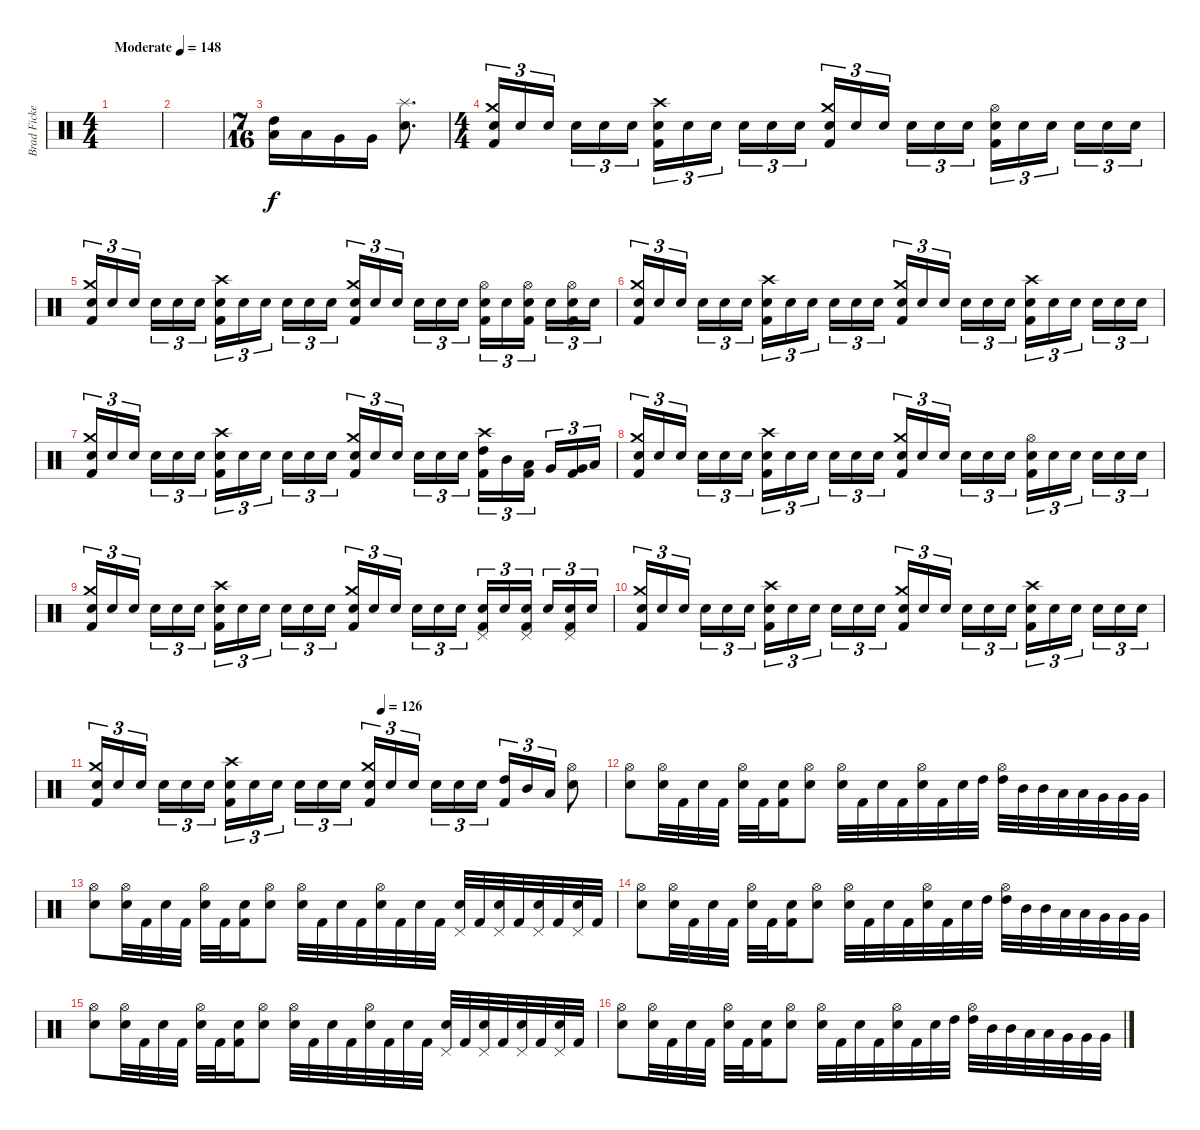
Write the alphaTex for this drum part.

\track ("Brad Fickeisen" "Brad Ficke") {instrument percussion}
\staff {score}
\articulation defaults
\ts (4 4)
\tempo (148 "Moderate")
\clef neutral
\ks c
|
|
\ts (7 16)
("High Tom (hit)" "Low Tom (hit)").16 "Low Tom (hit)".16 "Very Low Tom (hit)".16 "Very Low Tom (hit)".16 ("Splash (hit)" "Electric Snare (hit)").8{d} |
\ts (4 4)
("Crash medium (hit)" "Electric Snare (hit)" "Kick (hit) 2").16{tu (3 2)} "Electric Snare (hit)".16{tu (3 2)} "Electric Snare (hit)".16{tu (3 2) beam splitsecondary} "Electric Snare (hit)".16{tu (3 2)} "Electric Snare (hit)".16{tu (3 2)} "Electric Snare (hit)".16{tu (3 2)} ("Crash high (hit)" "Electric Snare (hit)" "Kick (hit) 2").16{tu (3 2)} "Electric Snare (hit)".16{tu (3 2)} "Electric Snare (hit)".16{tu (3 2) beam splitsecondary} "Electric Snare (hit)".16{tu (3 2)} "Electric Snare (hit)".16{tu (3 2)} "Electric Snare (hit)".16{tu (3 2)} ("Crash medium (hit)" "Electric Snare (hit)" "Kick (hit) 2").16{tu (3 2)} "Electric Snare (hit)".16{tu (3 2)} "Electric Snare (hit)".16{tu (3 2) beam splitsecondary} "Electric Snare (hit)".16{tu (3 2)} "Electric Snare (hit)".16{tu (3 2)} "Electric Snare (hit)".16{tu (3 2)} ("Hi-Hat (open)" "Electric Snare (hit)" "Kick (hit) 2").16{tu (3 2)} "Electric Snare (hit)".16{tu (3 2)} "Electric Snare (hit)".16{tu (3 2) beam splitsecondary} "Electric Snare (hit)".16{tu (3 2)} "Electric Snare (hit)".16{tu (3 2)} "Electric Snare (hit)".16{tu (3 2)} |
("Crash medium (hit)" "Electric Snare (hit)" "Kick (hit) 2").16{tu (3 2)} "Electric Snare (hit)".16{tu (3 2)} "Electric Snare (hit)".16{tu (3 2) beam splitsecondary} "Electric Snare (hit)".16{tu (3 2)} "Electric Snare (hit)".16{tu (3 2)} "Electric Snare (hit)".16{tu (3 2)} ("Crash high (hit)" "Electric Snare (hit)" "Kick (hit) 2").16{tu (3 2)} "Electric Snare (hit)".16{tu (3 2)} "Electric Snare (hit)".16{tu (3 2) beam splitsecondary} "Electric Snare (hit)".16{tu (3 2)} "Electric Snare (hit)".16{tu (3 2)} "Electric Snare (hit)".16{tu (3 2)} ("Crash medium (hit)" "Electric Snare (hit)" "Kick (hit) 2").16{tu (3 2)} "Electric Snare (hit)".16{tu (3 2)} "Electric Snare (hit)".16{tu (3 2) beam splitsecondary} "Electric Snare (hit)".16{tu (3 2)} "Electric Snare (hit)".16{tu (3 2)} "Electric Snare (hit)".16{tu (3 2)} ("Hi-Hat (open)" "Electric Snare (hit)" "Kick (hit) 2").16{tu (3 2)} "Electric Snare (hit)".16{tu (3 2)} ("Hi-Hat (open)" "Electric Snare (hit)" "Kick (hit) 2").16{tu (3 2) beam splitsecondary} "Electric Snare (hit)".16{tu (3 2)} ("Hi-Hat (open)" "Electric Snare (hit)" "Kick (hit) 2").16{tu (3 2)} "Electric Snare (hit)".16{tu (3 2)} |
("Crash medium (hit)" "Electric Snare (hit)" "Kick (hit) 2").16{tu (3 2)} "Electric Snare (hit)".16{tu (3 2)} "Electric Snare (hit)".16{tu (3 2) beam splitsecondary} "Electric Snare (hit)".16{tu (3 2)} "Electric Snare (hit)".16{tu (3 2)} "Electric Snare (hit)".16{tu (3 2)} ("Crash high (hit)" "Electric Snare (hit)" "Kick (hit) 2").16{tu (3 2)} "Electric Snare (hit)".16{tu (3 2)} "Electric Snare (hit)".16{tu (3 2) beam splitsecondary} "Electric Snare (hit)".16{tu (3 2)} "Electric Snare (hit)".16{tu (3 2)} "Electric Snare (hit)".16{tu (3 2)} ("Crash medium (hit)" "Electric Snare (hit)" "Kick (hit) 2").16{tu (3 2)} "Electric Snare (hit)".16{tu (3 2)} "Electric Snare (hit)".16{tu (3 2) beam splitsecondary} "Electric Snare (hit)".16{tu (3 2)} "Electric Snare (hit)".16{tu (3 2)} "Electric Snare (hit)".16{tu (3 2)} ("Crash high (hit)" "Electric Snare (hit)" "Kick (hit) 2").16{tu (3 2)} "Electric Snare (hit)".16{tu (3 2)} "Electric Snare (hit)".16{tu (3 2) beam splitsecondary} "Electric Snare (hit)".16{tu (3 2)} "Electric Snare (hit)".16{tu (3 2)} "Electric Snare (hit)".16{tu (3 2)} |
("Crash medium (hit)" "Electric Snare (hit)" "Kick (hit) 2").16{tu (3 2)} "Electric Snare (hit)".16{tu (3 2)} "Electric Snare (hit)".16{tu (3 2) beam splitsecondary} "Electric Snare (hit)".16{tu (3 2)} "Electric Snare (hit)".16{tu (3 2)} "Electric Snare (hit)".16{tu (3 2)} ("Crash high (hit)" "Electric Snare (hit)" "Kick (hit) 2").16{tu (3 2)} "Electric Snare (hit)".16{tu (3 2)} "Electric Snare (hit)".16{tu (3 2) beam splitsecondary} "Electric Snare (hit)".16{tu (3 2)} "Electric Snare (hit)".16{tu (3 2)} "Electric Snare (hit)".16{tu (3 2)} ("Crash medium (hit)" "Electric Snare (hit)" "Kick (hit) 2").16{tu (3 2)} "Electric Snare (hit)".16{tu (3 2)} "Electric Snare (hit)".16{tu (3 2) beam splitsecondary} "Electric Snare (hit)".16{tu (3 2)} "Electric Snare (hit)".16{tu (3 2)} "Electric Snare (hit)".16{tu (3 2)} ("Crash high (hit)" "High Tom (hit)" "Kick (hit) 2").16{tu (3 2)} "Mid Tom (hit)".16{tu (3 2)} ("Low Tom (hit)" "Kick (hit) 2").16{tu (3 2) beam splitsecondary} "Very Low Tom (hit)".16{tu (3 2)} ("Very Low Tom (hit)" "Kick (hit) 2").16{tu (3 2)} "Low Floor Tom (hit)".16{tu (3 2)} |
("Crash medium (hit)" "Electric Snare (hit)" "Kick (hit) 2").16{tu (3 2)} "Electric Snare (hit)".16{tu (3 2)} "Electric Snare (hit)".16{tu (3 2) beam splitsecondary} "Electric Snare (hit)".16{tu (3 2)} "Electric Snare (hit)".16{tu (3 2)} "Electric Snare (hit)".16{tu (3 2)} ("Crash high (hit)" "Electric Snare (hit)" "Kick (hit) 2").16{tu (3 2)} "Electric Snare (hit)".16{tu (3 2)} "Electric Snare (hit)".16{tu (3 2) beam splitsecondary} "Electric Snare (hit)".16{tu (3 2)} "Electric Snare (hit)".16{tu (3 2)} "Electric Snare (hit)".16{tu (3 2)} ("Crash medium (hit)" "Electric Snare (hit)" "Kick (hit) 2").16{tu (3 2)} "Electric Snare (hit)".16{tu (3 2)} "Electric Snare (hit)".16{tu (3 2) beam splitsecondary} "Electric Snare (hit)".16{tu (3 2)} "Electric Snare (hit)".16{tu (3 2)} "Electric Snare (hit)".16{tu (3 2)} ("Hi-Hat (open)" "Electric Snare (hit)" "Kick (hit) 2").16{tu (3 2)} "Electric Snare (hit)".16{tu (3 2)} "Electric Snare (hit)".16{tu (3 2) beam splitsecondary} "Electric Snare (hit)".16{tu (3 2)} "Electric Snare (hit)".16{tu (3 2)} "Electric Snare (hit)".16{tu (3 2)} |
("Crash medium (hit)" "Electric Snare (hit)" "Kick (hit) 2").16{tu (3 2)} "Electric Snare (hit)".16{tu (3 2)} "Electric Snare (hit)".16{tu (3 2) beam splitsecondary} "Electric Snare (hit)".16{tu (3 2)} "Electric Snare (hit)".16{tu (3 2)} "Electric Snare (hit)".16{tu (3 2)} ("Crash high (hit)" "Electric Snare (hit)" "Kick (hit) 2").16{tu (3 2)} "Electric Snare (hit)".16{tu (3 2)} "Electric Snare (hit)".16{tu (3 2) beam splitsecondary} "Electric Snare (hit)".16{tu (3 2)} "Electric Snare (hit)".16{tu (3 2)} "Electric Snare (hit)".16{tu (3 2)} ("Crash medium (hit)" "Electric Snare (hit)" "Kick (hit) 2").16{tu (3 2)} "Electric Snare (hit)".16{tu (3 2)} "Electric Snare (hit)".16{tu (3 2) beam splitsecondary} "Electric Snare (hit)".16{tu (3 2)} "Electric Snare (hit)".16{tu (3 2)} "Electric Snare (hit)".16{tu (3 2)} ("Pedal Hi-Hat (hit)" "Electric Snare (hit)" "Kick (hit) 2").16{tu (3 2)} "Electric Snare (hit)".16{tu (3 2)} ("Pedal Hi-Hat (hit)" "Electric Snare (hit)" "Kick (hit) 2").16{tu (3 2) beam splitsecondary} "Electric Snare (hit)".16{tu (3 2)} ("Pedal Hi-Hat (hit)" "Electric Snare (hit)" "Kick (hit) 2").16{tu (3 2)} "Electric Snare (hit)".16{tu (3 2)} |
("Crash medium (hit)" "Electric Snare (hit)" "Kick (hit) 2").16{tu (3 2)} "Electric Snare (hit)".16{tu (3 2)} "Electric Snare (hit)".16{tu (3 2) beam splitsecondary} "Electric Snare (hit)".16{tu (3 2)} "Electric Snare (hit)".16{tu (3 2)} "Electric Snare (hit)".16{tu (3 2)} ("Crash high (hit)" "Electric Snare (hit)" "Kick (hit) 2").16{tu (3 2)} "Electric Snare (hit)".16{tu (3 2)} "Electric Snare (hit)".16{tu (3 2) beam splitsecondary} "Electric Snare (hit)".16{tu (3 2)} "Electric Snare (hit)".16{tu (3 2)} "Electric Snare (hit)".16{tu (3 2)} ("Crash medium (hit)" "Electric Snare (hit)" "Kick (hit) 2").16{tu (3 2)} "Electric Snare (hit)".16{tu (3 2)} "Electric Snare (hit)".16{tu (3 2) beam splitsecondary} "Electric Snare (hit)".16{tu (3 2)} "Electric Snare (hit)".16{tu (3 2)} "Electric Snare (hit)".16{tu (3 2)} ("Crash high (hit)" "Electric Snare (hit)" "Kick (hit) 2").16{tu (3 2)} "Electric Snare (hit)".16{tu (3 2)} "Electric Snare (hit)".16{tu (3 2) beam splitsecondary} "Electric Snare (hit)".16{tu (3 2)} "Electric Snare (hit)".16{tu (3 2)} "Electric Snare (hit)".16{tu (3 2)} |
\tempo (126 0.5625)
("Crash medium (hit)" "Electric Snare (hit)" "Kick (hit) 2").16{tu (3 2)} "Electric Snare (hit)".16{tu (3 2)} "Electric Snare (hit)".16{tu (3 2) beam splitsecondary} "Electric Snare (hit)".16{tu (3 2)} "Electric Snare (hit)".16{tu (3 2)} "Electric Snare (hit)".16{tu (3 2)} ("Crash high (hit)" "Electric Snare (hit)" "Kick (hit) 2").16{tu (3 2)} "Electric Snare (hit)".16{tu (3 2)} "Electric Snare (hit)".16{tu (3 2) beam splitsecondary} "Electric Snare (hit)".16{tu (3 2)} "Electric Snare (hit)".16{tu (3 2)} "Electric Snare (hit)".16{tu (3 2)} ("Crash medium (hit)" "Electric Snare (hit)" "Kick (hit) 2").16{tu (3 2)} "Electric Snare (hit)".16{tu (3 2)} "Electric Snare (hit)".16{tu (3 2) beam splitsecondary} "Electric Snare (hit)".16{tu (3 2)} "Electric Snare (hit)".16{tu (3 2)} "Electric Snare (hit)".16{tu (3 2)} ("High Tom (hit)" "Kick (hit) 2").16{tu (3 2)} "Mid Tom (hit)".16{tu (3 2)} "Low Tom (hit)".16{tu (3 2)} ("Hi-Hat (open)" "Electric Snare (hit)").8 |
("Hi-Hat (open)" "Electric Snare (hit)").8 ("Hi-Hat (open)" "Electric Snare (hit)").32 "Kick (hit) 2".32 "Electric Snare (hit)".32 "Kick (hit) 2".32 ("Hi-Hat (open)" "Electric Snare (hit)").32 "Kick (hit) 2".32 ("Electric Snare (hit)" "Kick (hit) 2").16 ("Hi-Hat (open)" "Electric Snare (hit)").8 ("Hi-Hat (open)" "Electric Snare (hit)").32 "Kick (hit) 2".32 "Electric Snare (hit)".32 "Kick (hit) 2".32 ("Hi-Hat (open)" "Electric Snare (hit)").32 "Kick (hit) 2".32 "Electric Snare (hit)".32 "High Tom (hit)".32 ("Hi-Hat (open)" "High Tom (hit)").32 "Mid Tom (hit)".32 "Mid Tom (hit)".32 "Low Tom (hit)".32 "Low Tom (hit)".32 "Very Low Tom (hit)".32 "Very Low Tom (hit)".32 "Very Low Tom (hit)".32 |
("Hi-Hat (open)" "Electric Snare (hit)").8 ("Hi-Hat (open)" "Electric Snare (hit)").32 "Kick (hit) 2".32 "Electric Snare (hit)".32 "Kick (hit) 2".32 ("Hi-Hat (open)" "Electric Snare (hit)").32 "Kick (hit) 2".32 ("Electric Snare (hit)" "Kick (hit) 2").16 ("Hi-Hat (open)" "Electric Snare (hit)").8 ("Hi-Hat (open)" "Electric Snare (hit)").32 "Kick (hit) 2".32 "Electric Snare (hit)".32 "Kick (hit) 2".32 ("Hi-Hat (open)" "Electric Snare (hit)").32 "Kick (hit) 2".32 "Electric Snare (hit)".32 "Kick (hit) 2".32 ("Pedal Hi-Hat (hit)" "Electric Snare (hit)").32 "Kick (hit) 2".32 ("Pedal Hi-Hat (hit)" "Electric Snare (hit)").32 "Kick (hit) 2".32 ("Pedal Hi-Hat (hit)" "Electric Snare (hit)").32 "Kick (hit) 2".32 ("Pedal Hi-Hat (hit)" "Electric Snare (hit)").32 "Kick (hit) 2".32 |
("Hi-Hat (open)" "Electric Snare (hit)").8 ("Hi-Hat (open)" "Electric Snare (hit)").32 "Kick (hit) 2".32 "Electric Snare (hit)".32 "Kick (hit) 2".32 ("Hi-Hat (open)" "Electric Snare (hit)").32 "Kick (hit) 2".32 ("Electric Snare (hit)" "Kick (hit) 2").16 ("Hi-Hat (open)" "Electric Snare (hit)").8 ("Hi-Hat (open)" "Electric Snare (hit)").32 "Kick (hit) 2".32 "Electric Snare (hit)".32 "Kick (hit) 2".32 ("Hi-Hat (open)" "Electric Snare (hit)").32 "Kick (hit) 2".32 "Electric Snare (hit)".32 "High Tom (hit)".32 ("Hi-Hat (open)" "High Tom (hit)").32 "Mid Tom (hit)".32 "Mid Tom (hit)".32 "Low Tom (hit)".32 "Low Tom (hit)".32 "Very Low Tom (hit)".32 "Very Low Tom (hit)".32 "Very Low Tom (hit)".32 |
("Hi-Hat (open)" "Electric Snare (hit)").8 ("Hi-Hat (open)" "Electric Snare (hit)").32 "Kick (hit) 2".32 "Electric Snare (hit)".32 "Kick (hit) 2".32 ("Hi-Hat (open)" "Electric Snare (hit)").32 "Kick (hit) 2".32 ("Electric Snare (hit)" "Kick (hit) 2").16 ("Hi-Hat (open)" "Electric Snare (hit)").8 ("Hi-Hat (open)" "Electric Snare (hit)").32 "Kick (hit) 2".32 "Electric Snare (hit)".32 "Kick (hit) 2".32 ("Hi-Hat (open)" "Electric Snare (hit)").32 "Kick (hit) 2".32 "Electric Snare (hit)".32 "Kick (hit) 2".32 ("Pedal Hi-Hat (hit)" "Electric Snare (hit)").32 "Kick (hit) 2".32 ("Pedal Hi-Hat (hit)" "Electric Snare (hit)").32 "Kick (hit) 2".32 ("Pedal Hi-Hat (hit)" "Electric Snare (hit)").32 "Kick (hit) 2".32 ("Pedal Hi-Hat (hit)" "Electric Snare (hit)").32 "Kick (hit) 2".32 |
("Hi-Hat (open)" "Electric Snare (hit)").8 ("Hi-Hat (open)" "Electric Snare (hit)").32 "Kick (hit) 2".32 "Electric Snare (hit)".32 "Kick (hit) 2".32 ("Hi-Hat (open)" "Electric Snare (hit)").32 "Kick (hit) 2".32 ("Electric Snare (hit)" "Kick (hit) 2").16 ("Hi-Hat (open)" "Electric Snare (hit)").8 ("Hi-Hat (open)" "Electric Snare (hit)").32 "Kick (hit) 2".32 "Electric Snare (hit)".32 "Kick (hit) 2".32 ("Hi-Hat (open)" "Electric Snare (hit)").32 "Kick (hit) 2".32 "Electric Snare (hit)".32 "High Tom (hit)".32 ("Hi-Hat (open)" "High Tom (hit)").32 "Mid Tom (hit)".32 "Mid Tom (hit)".32 "Low Tom (hit)".32 "Low Tom (hit)".32 "Very Low Tom (hit)".32 "Very Low Tom (hit)".32 "Very Low Tom (hit)".32
